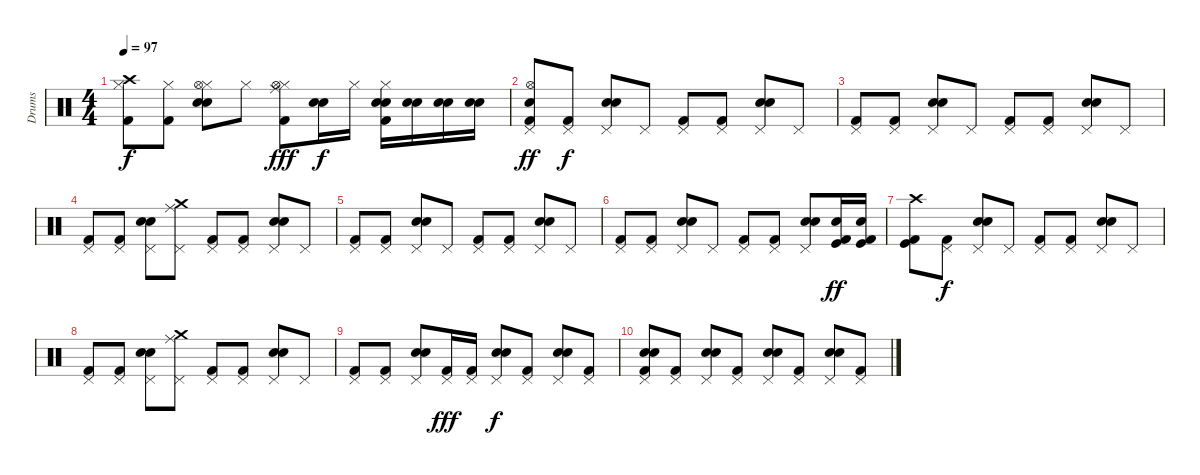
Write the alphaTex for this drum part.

\track ("Drums         Brian Young" "Drums     ") {instrument percussion}
\staff {score}
\articulation defaults
\ts (4 4)
\tempo 97
\clef neutral
\ks c
("Hi-Hat (closed)" "Crash high (hit)" "Kick (hit) 2").8{dy f} ("Hi-Hat (closed)" "Kick (hit) 2").8 ("Hi-Hat (closed)" "Electric Snare (hit)" "Snare (hit) 2" "Hi-Hat (open)").8 "Hi-Hat (closed)".8 ("Hi-Hat (closed)" "Hi-Hat (open)" "Ride (middle)" "Kick (hit) 2").8{dy fff} ("Electric Snare (hit)" "Snare (hit) 2").16{dy f} "Hi-Hat (closed)".16 ("Hi-Hat (closed)" "Electric Snare (hit)" "Snare (hit) 2" "Kick (hit) 2").16 ("Electric Snare (hit)" "Snare (hit) 2").16 ("Electric Snare (hit)" "Snare (hit) 2").16 ("Electric Snare (hit)" "Snare (hit) 2").16 |
("Pedal Hi-Hat (hit)" "Hi-Hat (open)" "Electric Snare (hit)" "Kick (hit) 2").8{dy ff} ("Pedal Hi-Hat (hit)" "Kick (hit) 2").8{dy f} ("Pedal Hi-Hat (hit)" "Electric Snare (hit)" "Snare (hit) 2").8 "Pedal Hi-Hat (hit)".8 ("Pedal Hi-Hat (hit)" "Kick (hit) 2").8 ("Pedal Hi-Hat (hit)" "Kick (hit) 2").8 ("Pedal Hi-Hat (hit)" "Electric Snare (hit)" "Snare (hit) 2").8 "Pedal Hi-Hat (hit)".8 |
("Pedal Hi-Hat (hit)" "Kick (hit) 2").8 ("Pedal Hi-Hat (hit)" "Kick (hit) 2").8 ("Pedal Hi-Hat (hit)" "Electric Snare (hit)" "Snare (hit) 2").8 "Pedal Hi-Hat (hit)".8 ("Pedal Hi-Hat (hit)" "Kick (hit) 2").8 ("Pedal Hi-Hat (hit)" "Kick (hit) 2").8 ("Pedal Hi-Hat (hit)" "Electric Snare (hit)" "Snare (hit) 2").8 "Pedal Hi-Hat (hit)".8 |
("Pedal Hi-Hat (hit)" "Kick (hit) 2").8 ("Pedal Hi-Hat (hit)" "Kick (hit) 2").8 ("Pedal Hi-Hat (hit)" "Electric Snare (hit)" "Snare (hit) 2").8 ("Pedal Hi-Hat (hit)" "Ride (middle)" "Crash medium (hit)").8 ("Pedal Hi-Hat (hit)" "Kick (hit) 2").8 ("Pedal Hi-Hat (hit)" "Kick (hit) 2").8 ("Pedal Hi-Hat (hit)" "Electric Snare (hit)" "Snare (hit) 2").8 "Pedal Hi-Hat (hit)".8 |
("Pedal Hi-Hat (hit)" "Kick (hit) 2").8 ("Pedal Hi-Hat (hit)" "Kick (hit) 2").8 ("Pedal Hi-Hat (hit)" "Electric Snare (hit)" "Snare (hit) 2").8 "Pedal Hi-Hat (hit)".8 ("Pedal Hi-Hat (hit)" "Kick (hit) 2").8 ("Pedal Hi-Hat (hit)" "Kick (hit) 2").8 ("Pedal Hi-Hat (hit)" "Electric Snare (hit)" "Snare (hit) 2").8 "Pedal Hi-Hat (hit)".8 |
("Pedal Hi-Hat (hit)" "Kick (hit) 2").8 ("Pedal Hi-Hat (hit)" "Kick (hit) 2").8 ("Pedal Hi-Hat (hit)" "Electric Snare (hit)" "Snare (hit) 2").8 "Pedal Hi-Hat (hit)".8 ("Pedal Hi-Hat (hit)" "Kick (hit) 2").8 ("Pedal Hi-Hat (hit)" "Kick (hit) 2").8 ("Pedal Hi-Hat (hit)" "Electric Snare (hit)" "Snare (hit) 2").8 ("Snare (hit) 2" "Kick (hit)" "Kick (hit) 2").16{dy ff} ("Snare (hit) 2" "Kick (hit)" "Kick (hit) 2").16 |
("Crash high (hit)" "Kick (hit)" "Kick (hit) 2").8 ("Pedal Hi-Hat (hit)" "Kick (hit) 2").8{dy f} ("Pedal Hi-Hat (hit)" "Electric Snare (hit)" "Snare (hit) 2").8 "Pedal Hi-Hat (hit)".8 ("Pedal Hi-Hat (hit)" "Kick (hit) 2").8 ("Pedal Hi-Hat (hit)" "Kick (hit) 2").8 ("Pedal Hi-Hat (hit)" "Electric Snare (hit)" "Snare (hit) 2").8 "Pedal Hi-Hat (hit)".8 |
("Pedal Hi-Hat (hit)" "Kick (hit) 2").8 ("Pedal Hi-Hat (hit)" "Kick (hit) 2").8 ("Pedal Hi-Hat (hit)" "Electric Snare (hit)" "Snare (hit) 2").8 ("Pedal Hi-Hat (hit)" "Ride (middle)" "Crash medium (hit)").8 ("Pedal Hi-Hat (hit)" "Kick (hit) 2").8 ("Pedal Hi-Hat (hit)" "Kick (hit) 2").8 ("Pedal Hi-Hat (hit)" "Electric Snare (hit)" "Snare (hit) 2").8 "Pedal Hi-Hat (hit)".8 |
("Pedal Hi-Hat (hit)" "Kick (hit) 2").8 ("Pedal Hi-Hat (hit)" "Kick (hit) 2").8 ("Pedal Hi-Hat (hit)" "Electric Snare (hit)" "Snare (hit) 2").8 ("Pedal Hi-Hat (hit)" "Kick (hit) 2").16{dy fff} ("Pedal Hi-Hat (hit)" "Kick (hit) 2").16 ("Pedal Hi-Hat (hit)" "Electric Snare (hit)" "Snare (hit) 2").8{dy f} ("Pedal Hi-Hat (hit)" "Kick (hit) 2").8 ("Pedal Hi-Hat (hit)" "Electric Snare (hit)" "Snare (hit) 2").8 ("Pedal Hi-Hat (hit)" "Kick (hit) 2").8 |
("Pedal Hi-Hat (hit)" "Electric Snare (hit)" "Snare (hit) 2" "Kick (hit) 2").8 ("Pedal Hi-Hat (hit)" "Kick (hit) 2").8 ("Pedal Hi-Hat (hit)" "Electric Snare (hit)" "Snare (hit) 2").8 ("Pedal Hi-Hat (hit)" "Kick (hit) 2").8 ("Pedal Hi-Hat (hit)" "Electric Snare (hit)" "Snare (hit) 2").8 ("Pedal Hi-Hat (hit)" "Kick (hit) 2").8 ("Pedal Hi-Hat (hit)" "Electric Snare (hit)" "Snare (hit) 2").8 ("Pedal Hi-Hat (hit)" "Kick (hit) 2").8
